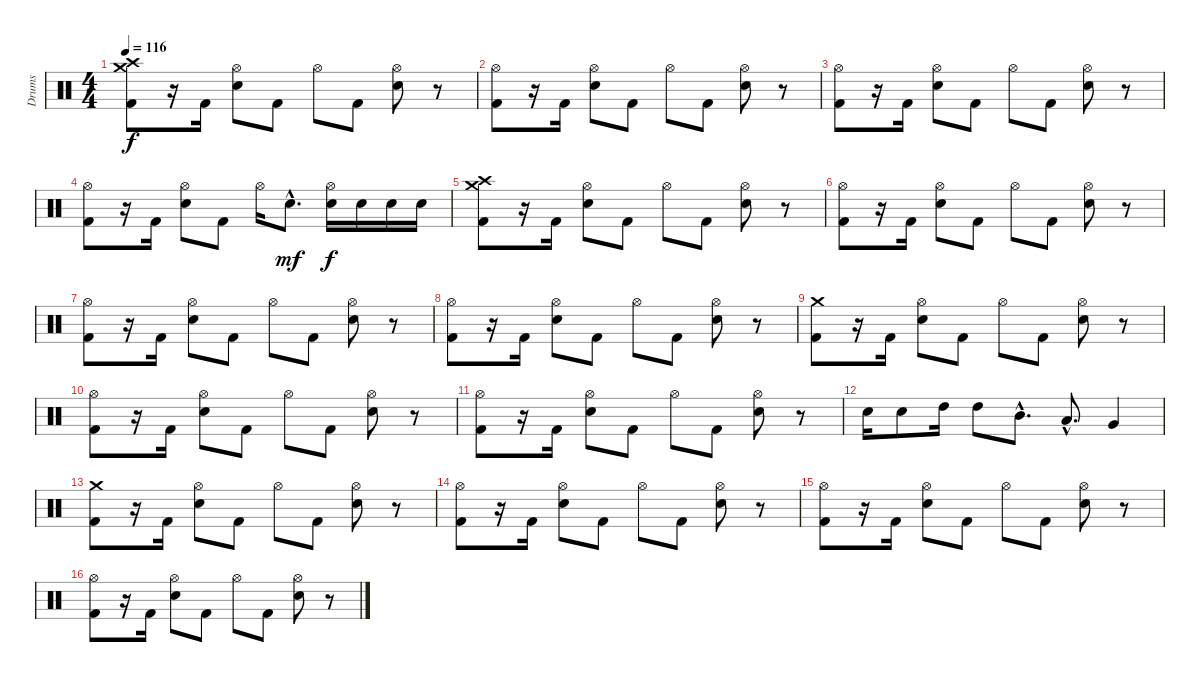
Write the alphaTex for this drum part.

\track ("Drums" "Drums") {instrument percussion}
\staff {score}
\articulation defaults
\ts (4 4)
\tempo 116
\clef neutral
\ks c
("Crash medium (hit)" "Crash high (hit)" "Kick (hit) 2").8{dy f} r.16 "Kick (hit) 2".16 ("Hi-Hat (open)" "Electric Snare (hit)").8 "Kick (hit) 2".8 "Hi-Hat (open)".8 "Kick (hit) 2".8 ("Hi-Hat (open)" "Electric Snare (hit)").8 r.8 |
("Hi-Hat (open)" "Kick (hit) 2").8 r.16 "Kick (hit) 2".16 ("Hi-Hat (open)" "Electric Snare (hit)").8 "Kick (hit) 2".8 "Hi-Hat (open)".8 "Kick (hit) 2".8 ("Hi-Hat (open)" "Electric Snare (hit)").8 r.8 |
("Hi-Hat (open)" "Kick (hit) 2").8 r.16 "Kick (hit) 2".16 ("Hi-Hat (open)" "Electric Snare (hit)").8 "Kick (hit) 2".8 "Hi-Hat (open)".8 "Kick (hit) 2".8 ("Hi-Hat (open)" "Electric Snare (hit)").8 r.8 |
("Hi-Hat (open)" "Kick (hit) 2").8 r.16 "Kick (hit) 2".16 ("Hi-Hat (open)" "Electric Snare (hit)").8 "Kick (hit) 2".8 "Hi-Hat (open)".16 "Electric Snare (hit)"{hac}.8{d dy mf} ("Hi-Hat (open)" "Electric Snare (hit)").16{dy f} "Electric Snare (hit)".16 "Electric Snare (hit)".16 "Electric Snare (hit)".16 |
("Crash medium (hit)" "Crash high (hit)" "Kick (hit) 2").8 r.16 "Kick (hit) 2".16 ("Hi-Hat (open)" "Electric Snare (hit)").8 "Kick (hit) 2".8 "Hi-Hat (open)".8 "Kick (hit) 2".8 ("Hi-Hat (open)" "Electric Snare (hit)").8 r.8 |
("Hi-Hat (open)" "Kick (hit) 2").8 r.16 "Kick (hit) 2".16 ("Hi-Hat (open)" "Electric Snare (hit)").8 "Kick (hit) 2".8 "Hi-Hat (open)".8 "Kick (hit) 2".8 ("Hi-Hat (open)" "Electric Snare (hit)").8 r.8 |
("Hi-Hat (open)" "Kick (hit) 2").8 r.16 "Kick (hit) 2".16 ("Hi-Hat (open)" "Electric Snare (hit)").8 "Kick (hit) 2".8 "Hi-Hat (open)".8 "Kick (hit) 2".8 ("Hi-Hat (open)" "Electric Snare (hit)").8 r.8 |
("Hi-Hat (open)" "Kick (hit) 2").8 r.16 "Kick (hit) 2".16 ("Hi-Hat (open)" "Electric Snare (hit)").8 "Kick (hit) 2".8 "Hi-Hat (open)".8 "Kick (hit) 2".8 ("Hi-Hat (open)" "Electric Snare (hit)").8 r.8 |
("Crash medium (hit)" "Kick (hit) 2").8 r.16 "Kick (hit) 2".16 ("Hi-Hat (open)" "Electric Snare (hit)").8 "Kick (hit) 2".8 "Hi-Hat (open)".8 "Kick (hit) 2".8 ("Hi-Hat (open)" "Electric Snare (hit)").8 r.8 |
("Hi-Hat (open)" "Kick (hit) 2").8 r.16 "Kick (hit) 2".16 ("Hi-Hat (open)" "Electric Snare (hit)").8 "Kick (hit) 2".8 "Hi-Hat (open)".8 "Kick (hit) 2".8 ("Hi-Hat (open)" "Electric Snare (hit)").8 r.8 |
("Hi-Hat (open)" "Kick (hit) 2").8 r.16 "Kick (hit) 2".16 ("Hi-Hat (open)" "Electric Snare (hit)").8 "Kick (hit) 2".8 "Hi-Hat (open)".8 "Kick (hit) 2".8 ("Hi-Hat (open)" "Electric Snare (hit)").8 r.8 |
"Electric Snare (hit)".16 "Electric Snare (hit)".8 "High Tom (hit)".16 "High Tom (hit)".8 "Mid Tom (hit)"{hac}.8{d} "Low Tom (hit)"{hac}.8{d} "Very Low Tom (hit)".4 |
("Crash medium (hit)" "Kick (hit) 2").8 r.16 "Kick (hit) 2".16 ("Hi-Hat (open)" "Electric Snare (hit)").8 "Kick (hit) 2".8 "Hi-Hat (open)".8 "Kick (hit) 2".8 ("Hi-Hat (open)" "Electric Snare (hit)").8 r.8 |
("Hi-Hat (open)" "Kick (hit) 2").8 r.16 "Kick (hit) 2".16 ("Hi-Hat (open)" "Electric Snare (hit)").8 "Kick (hit) 2".8 "Hi-Hat (open)".8 "Kick (hit) 2".8 ("Hi-Hat (open)" "Electric Snare (hit)").8 r.8 |
("Hi-Hat (open)" "Kick (hit) 2").8 r.16 "Kick (hit) 2".16 ("Hi-Hat (open)" "Electric Snare (hit)").8 "Kick (hit) 2".8 "Hi-Hat (open)".8 "Kick (hit) 2".8 ("Hi-Hat (open)" "Electric Snare (hit)").8 r.8 |
("Hi-Hat (open)" "Kick (hit) 2").8 r.16 "Kick (hit) 2".16 ("Hi-Hat (open)" "Electric Snare (hit)").8 "Kick (hit) 2".8 "Hi-Hat (open)".8 "Kick (hit) 2".8 ("Hi-Hat (open)" "Electric Snare (hit)").8 r.8
